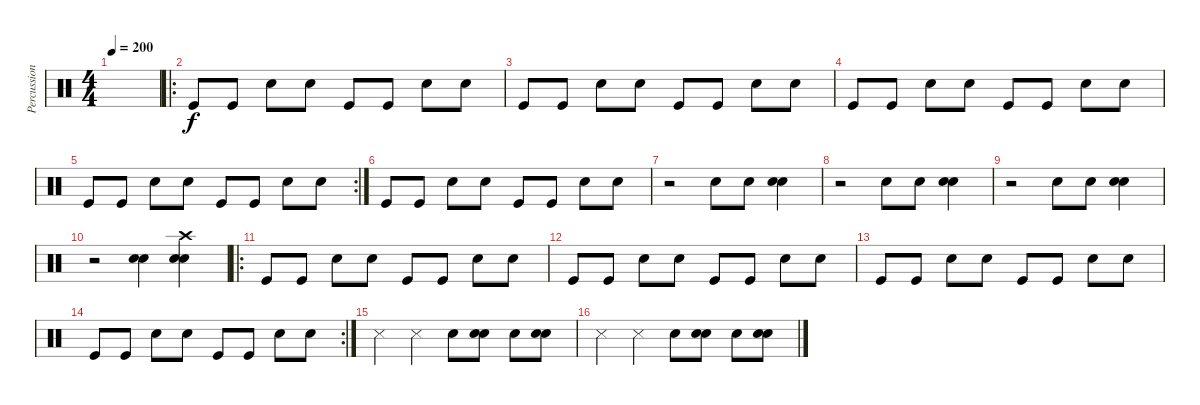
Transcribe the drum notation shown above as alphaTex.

\track ("Percussions" "Percussion") {instrument percussion}
\staff {score}
\articulation defaults
\ts (4 4)
\tempo 200
\clef neutral
\ks c
|
\ro "Kick (hit)".8 "Kick (hit)".8 "Snare (hit) 2".8 "Snare (hit) 2".8 "Kick (hit)".8 "Kick (hit)".8 "Snare (hit) 2".8 "Snare (hit) 2".8
|
"Kick (hit)".8 "Kick (hit)".8 "Snare (hit) 2".8 "Snare (hit) 2".8 "Kick (hit)".8 "Kick (hit)".8 "Snare (hit) 2".8 "Snare (hit) 2".8 |
"Kick (hit)".8 "Kick (hit)".8 "Snare (hit) 2".8 "Snare (hit) 2".8 "Kick (hit)".8 "Kick (hit)".8 "Snare (hit) 2".8 "Snare (hit) 2".8 |
\rc 2 "Kick (hit)".8 "Kick (hit)".8 "Snare (hit) 2".8 "Snare (hit) 2".8 "Kick (hit)".8 "Kick (hit)".8 "Snare (hit) 2".8 "Snare (hit) 2".8
|
"Kick (hit)".8 "Kick (hit)".8 "Snare (hit) 2".8 "Snare (hit) 2".8 "Kick (hit)".8 "Kick (hit)".8 "Snare (hit) 2".8 "Snare (hit) 2".8 |
r.2 "Electric Snare (hit)".8 "Electric Snare (hit)".8 ("Snare (hit) 2" "Electric Snare (hit)").4 |
r.2 "Electric Snare (hit)".8 "Electric Snare (hit)".8 ("Snare (hit) 2" "Electric Snare (hit)").4 |
r.2 "Electric Snare (hit)".8 "Electric Snare (hit)".8 ("Snare (hit) 2" "Electric Snare (hit)").4 |
r.2 ("Electric Snare (hit)" "Snare (hit) 2").4 ("Crash high (hit)" "Snare (hit) 2" "Electric Snare (hit)").4 |
\ro "Kick (hit)".8 "Kick (hit)".8 "Snare (hit) 2".8 "Snare (hit) 2".8 "Kick (hit)".8 "Kick (hit)".8 "Snare (hit) 2".8 "Snare (hit) 2".8
|
"Kick (hit)".8 "Kick (hit)".8 "Snare (hit) 2".8 "Snare (hit) 2".8 "Kick (hit)".8 "Kick (hit)".8 "Snare (hit) 2".8 "Snare (hit) 2".8 |
"Kick (hit)".8 "Kick (hit)".8 "Snare (hit) 2".8 "Snare (hit) 2".8 "Kick (hit)".8 "Kick (hit)".8 "Snare (hit) 2".8 "Snare (hit) 2".8 |
\rc 2 "Kick (hit)".8 "Kick (hit)".8 "Snare (hit) 2".8 "Snare (hit) 2".8 "Kick (hit)".8 "Kick (hit)".8 "Snare (hit) 2".8 "Snare (hit) 2".8
|
"Snare (side stick) 3".4 "Snare (side stick) 3".4 "Snare (hit) 2".8 ("Snare (hit) 2" "Snare (hit) 2").8 "Snare (hit) 2".8 ("Snare (hit) 2" "Snare (hit) 2").8 |
"Snare (side stick) 3".4 "Snare (side stick) 3".4 "Snare (hit) 2".8 ("Snare (hit) 2" "Snare (hit) 2").8 "Snare (hit) 2".8 ("Snare (hit) 2" "Snare (hit) 2").8
